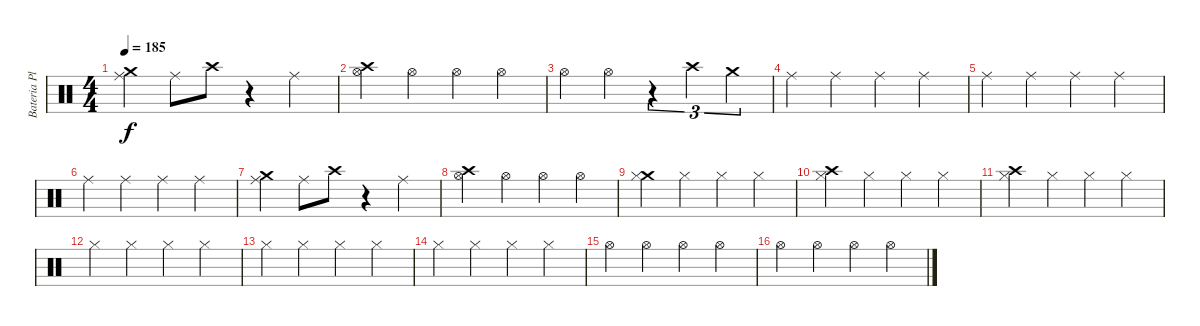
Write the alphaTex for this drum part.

\track ("Bateria Platos" "Bateria Pl") {instrument percussion}
\staff {score}
\articulation defaults
\ts (4 4)
\tempo 185
\clef neutral
\ks c
("Crash medium (hit)" "Ride (middle)").4{dy f} "Ride (middle)".8 "Crash high (hit)".8 r.4 "Ride (middle)".4 |
("Crash high (hit)" "Hi-Hat (open)").4 "Hi-Hat (open)".4 "Hi-Hat (open)".4 "Hi-Hat (open)".4 |
"Hi-Hat (open)".4 "Hi-Hat (open)".4 r.4{tu (3 2)} "Crash high (hit)".4{tu (3 2)} "Crash medium (hit)".4{tu (3 2)} |
"Ride (middle)".4 "Ride (middle)".4 "Ride (middle)".4 "Ride (middle)".4 |
"Ride (middle)".4 "Ride (middle)".4 "Ride (middle)".4 "Ride (middle)".4 |
"Ride (middle)".4 "Ride (middle)".4 "Ride (middle)".4 "Ride (middle)".4 |
("Crash medium (hit)" "Ride (middle)").4 "Ride (middle)".8 "Crash high (hit)".8 r.4 "Ride (middle)".4 |
("Crash high (hit)" "Hi-Hat (open)").4 "Hi-Hat (open)".4 "Hi-Hat (open)".4 "Hi-Hat (open)".4 |
("Crash medium (hit)" "Hi-Hat (closed)").4 "Hi-Hat (closed)".4 "Hi-Hat (closed)".4 "Hi-Hat (closed)".4 |
("Crash high (hit)" "Hi-Hat (closed)").4 "Hi-Hat (closed)".4 "Hi-Hat (closed)".4 "Hi-Hat (closed)".4 |
("Crash high (hit)" "Hi-Hat (closed)").4 "Hi-Hat (closed)".4 "Hi-Hat (closed)".4 "Hi-Hat (closed)".4 |
"Hi-Hat (closed)".4 "Hi-Hat (closed)".4 "Hi-Hat (closed)".4 "Hi-Hat (closed)".4 |
"Hi-Hat (closed)".4 "Hi-Hat (closed)".4 "Hi-Hat (closed)".4 "Hi-Hat (closed)".4 |
"Hi-Hat (closed)".4 "Hi-Hat (closed)".4 "Hi-Hat (closed)".4 "Hi-Hat (closed)".4 |
"Hi-Hat (open)".4 "Hi-Hat (open)".4 "Hi-Hat (open)".4 "Hi-Hat (open)".4 |
"Hi-Hat (open)".4 "Hi-Hat (open)".4 "Hi-Hat (open)".4 "Hi-Hat (open)".4
